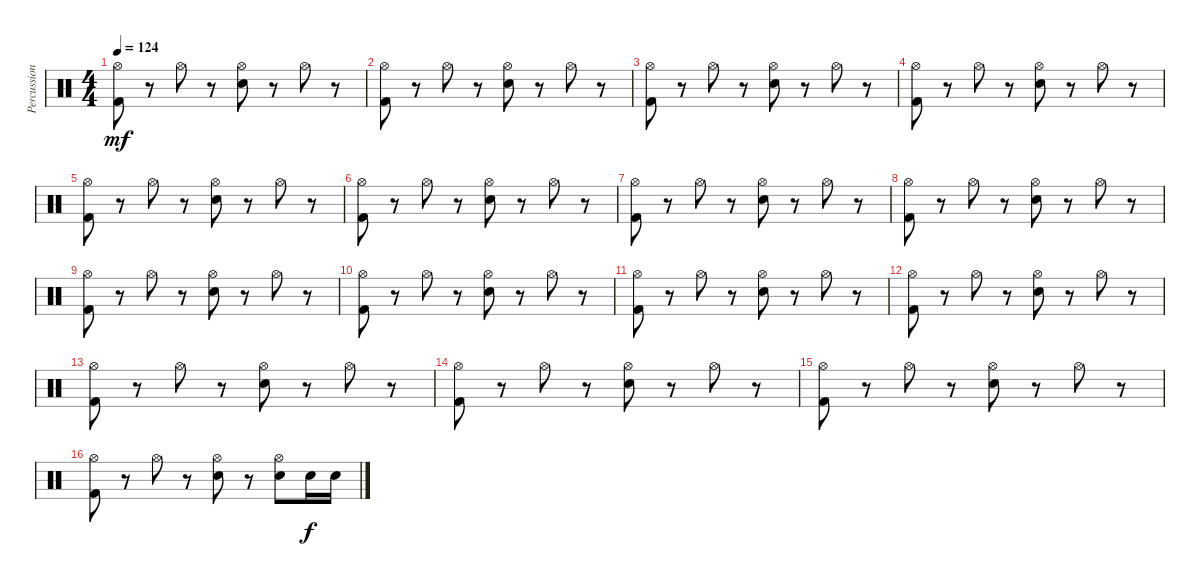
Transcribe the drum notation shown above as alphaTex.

\track ("Percussion" "Percussion") {instrument percussion}
\staff {score}
\articulation defaults
\ts (4 4)
\tempo 124
\clef neutral
\ks c
("Kick (hit) 2" "Hi-Hat (open)").8{dy mf} r.8 "Hi-Hat (open)".8 r.8 ("Electric Snare (hit)" "Hi-Hat (open)").8 r.8 "Hi-Hat (open)".8 r.8 |
("Kick (hit) 2" "Hi-Hat (open)").8 r.8 "Hi-Hat (open)".8 r.8 ("Electric Snare (hit)" "Hi-Hat (open)").8 r.8 "Hi-Hat (open)".8 r.8 |
("Kick (hit) 2" "Hi-Hat (open)").8 r.8 "Hi-Hat (open)".8 r.8 ("Electric Snare (hit)" "Hi-Hat (open)").8 r.8 "Hi-Hat (open)".8 r.8 |
("Kick (hit) 2" "Hi-Hat (open)").8 r.8 "Hi-Hat (open)".8 r.8 ("Electric Snare (hit)" "Hi-Hat (open)").8 r.8 "Hi-Hat (open)".8 r.8 |
("Kick (hit) 2" "Hi-Hat (open)").8 r.8 "Hi-Hat (open)".8 r.8 ("Electric Snare (hit)" "Hi-Hat (open)").8 r.8 "Hi-Hat (open)".8 r.8 |
("Kick (hit) 2" "Hi-Hat (open)").8 r.8 "Hi-Hat (open)".8 r.8 ("Electric Snare (hit)" "Hi-Hat (open)").8 r.8 "Hi-Hat (open)".8 r.8 |
("Kick (hit) 2" "Hi-Hat (open)").8 r.8 "Hi-Hat (open)".8 r.8 ("Electric Snare (hit)" "Hi-Hat (open)").8 r.8 "Hi-Hat (open)".8 r.8 |
("Kick (hit) 2" "Hi-Hat (open)").8 r.8 "Hi-Hat (open)".8 r.8 ("Electric Snare (hit)" "Hi-Hat (open)").8 r.8 "Hi-Hat (open)".8 r.8 |
("Kick (hit) 2" "Hi-Hat (open)").8 r.8 "Hi-Hat (open)".8 r.8 ("Electric Snare (hit)" "Hi-Hat (open)").8 r.8 "Hi-Hat (open)".8 r.8 |
("Kick (hit) 2" "Hi-Hat (open)").8 r.8 "Hi-Hat (open)".8 r.8 ("Electric Snare (hit)" "Hi-Hat (open)").8 r.8 "Hi-Hat (open)".8 r.8 |
("Kick (hit) 2" "Hi-Hat (open)").8 r.8 "Hi-Hat (open)".8 r.8 ("Electric Snare (hit)" "Hi-Hat (open)").8 r.8 "Hi-Hat (open)".8 r.8 |
("Kick (hit) 2" "Hi-Hat (open)").8 r.8 "Hi-Hat (open)".8 r.8 ("Electric Snare (hit)" "Hi-Hat (open)").8 r.8 "Hi-Hat (open)".8 r.8 |
("Kick (hit) 2" "Hi-Hat (open)").8 r.8 "Hi-Hat (open)".8 r.8 ("Electric Snare (hit)" "Hi-Hat (open)").8 r.8 "Hi-Hat (open)".8 r.8 |
("Kick (hit) 2" "Hi-Hat (open)").8 r.8 "Hi-Hat (open)".8 r.8 ("Electric Snare (hit)" "Hi-Hat (open)").8 r.8 "Hi-Hat (open)".8 r.8 |
("Kick (hit) 2" "Hi-Hat (open)").8 r.8 "Hi-Hat (open)".8 r.8 ("Electric Snare (hit)" "Hi-Hat (open)").8 r.8 "Hi-Hat (open)".8 r.8 |
("Kick (hit) 2" "Hi-Hat (open)").8 r.8 "Hi-Hat (open)".8 r.8 ("Electric Snare (hit)" "Hi-Hat (open)").8 r.8 ("Electric Snare (hit)" "Hi-Hat (open)").8 "Electric Snare (hit)".16{dy f} "Electric Snare (hit)".16
